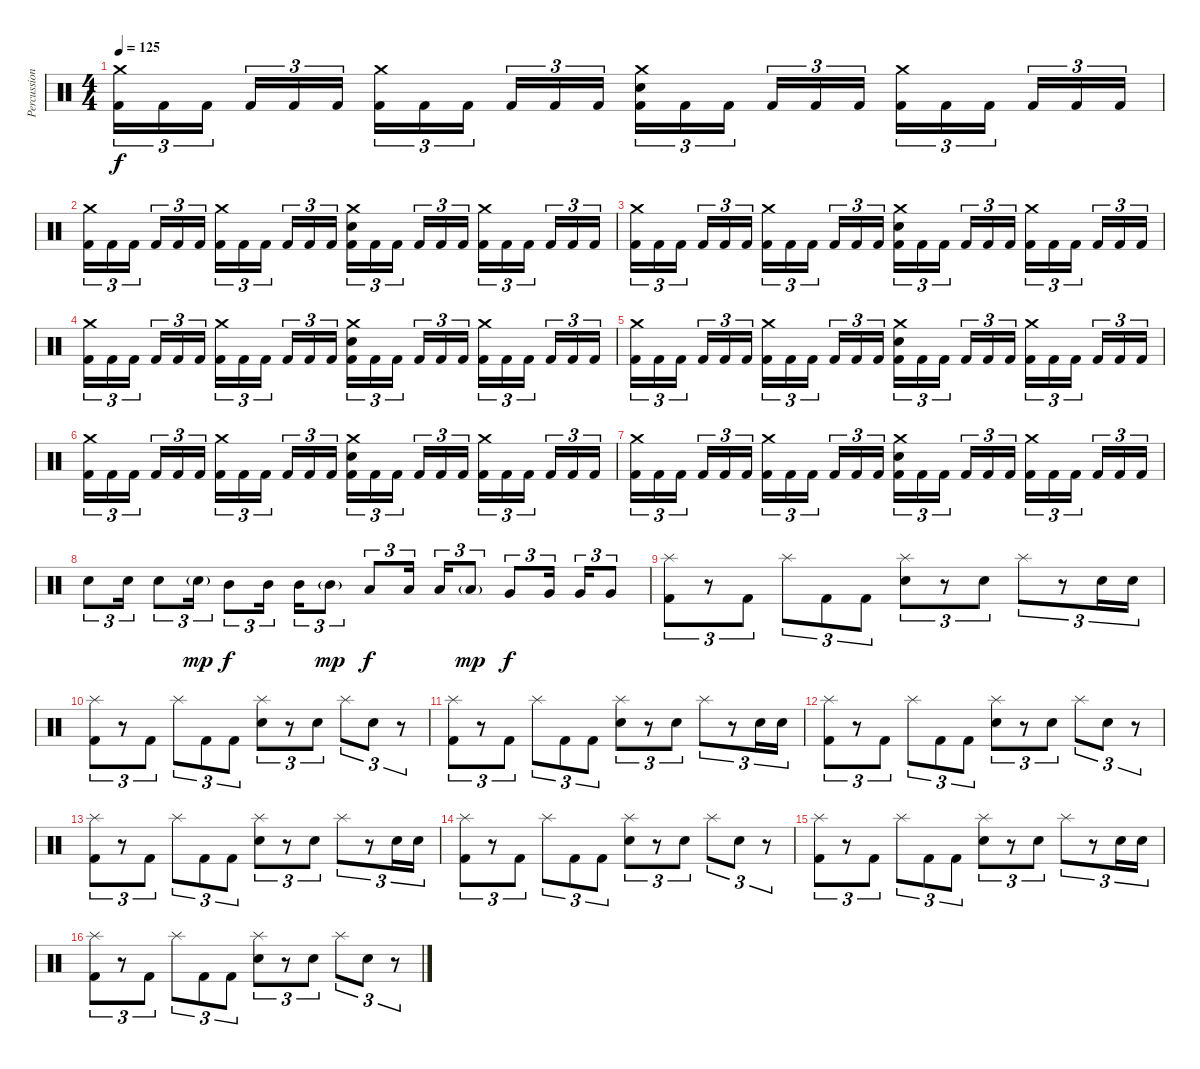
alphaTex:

\track ("Percussion" "Percussion") {instrument percussion}
\staff {score}
\articulation defaults
\ts (4 4)
\tempo 125
\clef neutral
\ks c
("Crash medium (hit)" "Kick (hit) 2").16{tu (3 2) dy f} "Kick (hit) 2".16{tu (3 2)} "Kick (hit) 2".16{tu (3 2)} "Kick (hit) 2".16{tu (3 2)} "Kick (hit) 2".16{tu (3 2)} "Kick (hit) 2".16{tu (3 2)} ("Crash medium (hit)" "Kick (hit) 2").16{tu (3 2)} "Kick (hit) 2".16{tu (3 2)} "Kick (hit) 2".16{tu (3 2)} "Kick (hit) 2".16{tu (3 2)} "Kick (hit) 2".16{tu (3 2)} "Kick (hit) 2".16{tu (3 2)} ("Crash medium (hit)" "Electric Snare (hit)" "Kick (hit) 2").16{tu (3 2)} "Kick (hit) 2".16{tu (3 2)} "Kick (hit) 2".16{tu (3 2)} "Kick (hit) 2".16{tu (3 2)} "Kick (hit) 2".16{tu (3 2)} "Kick (hit) 2".16{tu (3 2)} ("Crash medium (hit)" "Kick (hit) 2").16{tu (3 2)} "Kick (hit) 2".16{tu (3 2)} "Kick (hit) 2".16{tu (3 2)} "Kick (hit) 2".16{tu (3 2)} "Kick (hit) 2".16{tu (3 2)} "Kick (hit) 2".16{tu (3 2)} |
("Crash medium (hit)" "Kick (hit) 2").16{tu (3 2)} "Kick (hit) 2".16{tu (3 2)} "Kick (hit) 2".16{tu (3 2)} "Kick (hit) 2".16{tu (3 2)} "Kick (hit) 2".16{tu (3 2)} "Kick (hit) 2".16{tu (3 2)} ("Crash medium (hit)" "Kick (hit) 2").16{tu (3 2)} "Kick (hit) 2".16{tu (3 2)} "Kick (hit) 2".16{tu (3 2)} "Kick (hit) 2".16{tu (3 2)} "Kick (hit) 2".16{tu (3 2)} "Kick (hit) 2".16{tu (3 2)} ("Crash medium (hit)" "Electric Snare (hit)" "Kick (hit) 2").16{tu (3 2)} "Kick (hit) 2".16{tu (3 2)} "Kick (hit) 2".16{tu (3 2)} "Kick (hit) 2".16{tu (3 2)} "Kick (hit) 2".16{tu (3 2)} "Kick (hit) 2".16{tu (3 2)} ("Crash medium (hit)" "Kick (hit) 2").16{tu (3 2)} "Kick (hit) 2".16{tu (3 2)} "Kick (hit) 2".16{tu (3 2)} "Kick (hit) 2".16{tu (3 2)} "Kick (hit) 2".16{tu (3 2)} "Kick (hit) 2".16{tu (3 2)} |
("Crash medium (hit)" "Kick (hit) 2").16{tu (3 2)} "Kick (hit) 2".16{tu (3 2)} "Kick (hit) 2".16{tu (3 2)} "Kick (hit) 2".16{tu (3 2)} "Kick (hit) 2".16{tu (3 2)} "Kick (hit) 2".16{tu (3 2)} ("Crash medium (hit)" "Kick (hit) 2").16{tu (3 2)} "Kick (hit) 2".16{tu (3 2)} "Kick (hit) 2".16{tu (3 2)} "Kick (hit) 2".16{tu (3 2)} "Kick (hit) 2".16{tu (3 2)} "Kick (hit) 2".16{tu (3 2)} ("Crash medium (hit)" "Electric Snare (hit)" "Kick (hit) 2").16{tu (3 2)} "Kick (hit) 2".16{tu (3 2)} "Kick (hit) 2".16{tu (3 2)} "Kick (hit) 2".16{tu (3 2)} "Kick (hit) 2".16{tu (3 2)} "Kick (hit) 2".16{tu (3 2)} ("Crash medium (hit)" "Kick (hit) 2").16{tu (3 2)} "Kick (hit) 2".16{tu (3 2)} "Kick (hit) 2".16{tu (3 2)} "Kick (hit) 2".16{tu (3 2)} "Kick (hit) 2".16{tu (3 2)} "Kick (hit) 2".16{tu (3 2)} |
("Crash medium (hit)" "Kick (hit) 2").16{tu (3 2)} "Kick (hit) 2".16{tu (3 2)} "Kick (hit) 2".16{tu (3 2)} "Kick (hit) 2".16{tu (3 2)} "Kick (hit) 2".16{tu (3 2)} "Kick (hit) 2".16{tu (3 2)} ("Crash medium (hit)" "Kick (hit) 2").16{tu (3 2)} "Kick (hit) 2".16{tu (3 2)} "Kick (hit) 2".16{tu (3 2)} "Kick (hit) 2".16{tu (3 2)} "Kick (hit) 2".16{tu (3 2)} "Kick (hit) 2".16{tu (3 2)} ("Crash medium (hit)" "Electric Snare (hit)" "Kick (hit) 2").16{tu (3 2)} "Kick (hit) 2".16{tu (3 2)} "Kick (hit) 2".16{tu (3 2)} "Kick (hit) 2".16{tu (3 2)} "Kick (hit) 2".16{tu (3 2)} "Kick (hit) 2".16{tu (3 2)} ("Crash medium (hit)" "Kick (hit) 2").16{tu (3 2)} "Kick (hit) 2".16{tu (3 2)} "Kick (hit) 2".16{tu (3 2)} "Kick (hit) 2".16{tu (3 2)} "Kick (hit) 2".16{tu (3 2)} "Kick (hit) 2".16{tu (3 2)} |
("Crash medium (hit)" "Kick (hit) 2").16{tu (3 2)} "Kick (hit) 2".16{tu (3 2)} "Kick (hit) 2".16{tu (3 2)} "Kick (hit) 2".16{tu (3 2)} "Kick (hit) 2".16{tu (3 2)} "Kick (hit) 2".16{tu (3 2)} ("Crash medium (hit)" "Kick (hit) 2").16{tu (3 2)} "Kick (hit) 2".16{tu (3 2)} "Kick (hit) 2".16{tu (3 2)} "Kick (hit) 2".16{tu (3 2)} "Kick (hit) 2".16{tu (3 2)} "Kick (hit) 2".16{tu (3 2)} ("Crash medium (hit)" "Electric Snare (hit)" "Kick (hit) 2").16{tu (3 2)} "Kick (hit) 2".16{tu (3 2)} "Kick (hit) 2".16{tu (3 2)} "Kick (hit) 2".16{tu (3 2)} "Kick (hit) 2".16{tu (3 2)} "Kick (hit) 2".16{tu (3 2)} ("Crash medium (hit)" "Kick (hit) 2").16{tu (3 2)} "Kick (hit) 2".16{tu (3 2)} "Kick (hit) 2".16{tu (3 2)} "Kick (hit) 2".16{tu (3 2)} "Kick (hit) 2".16{tu (3 2)} "Kick (hit) 2".16{tu (3 2)} |
("Crash medium (hit)" "Kick (hit) 2").16{tu (3 2)} "Kick (hit) 2".16{tu (3 2)} "Kick (hit) 2".16{tu (3 2)} "Kick (hit) 2".16{tu (3 2)} "Kick (hit) 2".16{tu (3 2)} "Kick (hit) 2".16{tu (3 2)} ("Crash medium (hit)" "Kick (hit) 2").16{tu (3 2)} "Kick (hit) 2".16{tu (3 2)} "Kick (hit) 2".16{tu (3 2)} "Kick (hit) 2".16{tu (3 2)} "Kick (hit) 2".16{tu (3 2)} "Kick (hit) 2".16{tu (3 2)} ("Crash medium (hit)" "Electric Snare (hit)" "Kick (hit) 2").16{tu (3 2)} "Kick (hit) 2".16{tu (3 2)} "Kick (hit) 2".16{tu (3 2)} "Kick (hit) 2".16{tu (3 2)} "Kick (hit) 2".16{tu (3 2)} "Kick (hit) 2".16{tu (3 2)} ("Crash medium (hit)" "Kick (hit) 2").16{tu (3 2)} "Kick (hit) 2".16{tu (3 2)} "Kick (hit) 2".16{tu (3 2)} "Kick (hit) 2".16{tu (3 2)} "Kick (hit) 2".16{tu (3 2)} "Kick (hit) 2".16{tu (3 2)} |
("Crash medium (hit)" "Kick (hit) 2").16{tu (3 2)} "Kick (hit) 2".16{tu (3 2)} "Kick (hit) 2".16{tu (3 2)} "Kick (hit) 2".16{tu (3 2)} "Kick (hit) 2".16{tu (3 2)} "Kick (hit) 2".16{tu (3 2)} ("Crash medium (hit)" "Kick (hit) 2").16{tu (3 2)} "Kick (hit) 2".16{tu (3 2)} "Kick (hit) 2".16{tu (3 2)} "Kick (hit) 2".16{tu (3 2)} "Kick (hit) 2".16{tu (3 2)} "Kick (hit) 2".16{tu (3 2)} ("Crash medium (hit)" "Electric Snare (hit)" "Kick (hit) 2").16{tu (3 2)} "Kick (hit) 2".16{tu (3 2)} "Kick (hit) 2".16{tu (3 2)} "Kick (hit) 2".16{tu (3 2)} "Kick (hit) 2".16{tu (3 2)} "Kick (hit) 2".16{tu (3 2)} ("Crash medium (hit)" "Kick (hit) 2").16{tu (3 2)} "Kick (hit) 2".16{tu (3 2)} "Kick (hit) 2".16{tu (3 2)} "Kick (hit) 2".16{tu (3 2)} "Kick (hit) 2".16{tu (3 2)} "Kick (hit) 2".16{tu (3 2)} |
"Electric Snare (hit)".8{tu (3 2)} "Electric Snare (hit)".16{tu (3 2)} "Electric Snare (hit)".8{tu (3 2)} "Electric Snare (hit)"{g}.16{tu (3 2) dy mp} "Mid Tom (hit)".8{tu (3 2) dy f} "Mid Tom (hit)".16{tu (3 2)} "Mid Tom (hit)".16{tu (3 2)} "Mid Tom (hit)"{g}.8{tu (3 2) dy mp} "Low Tom (hit)".8{tu (3 2) dy f} "Low Tom (hit)".16{tu (3 2)} "Low Tom (hit)".16{tu (3 2)} "Low Tom (hit)"{g}.8{tu (3 2) dy mp} "Very Low Tom (hit)".8{tu (3 2) dy f} "Very Low Tom (hit)".16{tu (3 2)} "Very Low Tom (hit)".16{tu (3 2)} "Very Low Tom (hit)".8{tu (3 2)} |
("Splash (hit)" "Kick (hit) 2").8{tu (3 2)} r.8{tu (3 2)} "Kick (hit) 2".8{tu (3 2)} "Splash (hit)".8{tu (3 2)} "Kick (hit) 2".8{tu (3 2)} "Kick (hit) 2".8{tu (3 2)} ("Splash (hit)" "Electric Snare (hit)").8{tu (3 2)} r.8{tu (3 2)} "Electric Snare (hit)".8{tu (3 2)} "Splash (hit)".8{tu (3 2)} r.8{tu (3 2)} "Electric Snare (hit)".16{tu (3 2)} "Electric Snare (hit)".16{tu (3 2)} |
("Splash (hit)" "Kick (hit) 2").8{tu (3 2)} r.8{tu (3 2)} "Kick (hit) 2".8{tu (3 2)} "Splash (hit)".8{tu (3 2)} "Kick (hit) 2".8{tu (3 2)} "Kick (hit) 2".8{tu (3 2)} ("Splash (hit)" "Electric Snare (hit)").8{tu (3 2)} r.8{tu (3 2)} "Electric Snare (hit)".8{tu (3 2)} "Splash (hit)".8{tu (3 2)} "Electric Snare (hit)".8{tu (3 2)} r.8{tu (3 2)} |
("Splash (hit)" "Kick (hit) 2").8{tu (3 2)} r.8{tu (3 2)} "Kick (hit) 2".8{tu (3 2)} "Splash (hit)".8{tu (3 2)} "Kick (hit) 2".8{tu (3 2)} "Kick (hit) 2".8{tu (3 2)} ("Splash (hit)" "Electric Snare (hit)").8{tu (3 2)} r.8{tu (3 2)} "Electric Snare (hit)".8{tu (3 2)} "Splash (hit)".8{tu (3 2)} r.8{tu (3 2)} "Electric Snare (hit)".16{tu (3 2)} "Electric Snare (hit)".16{tu (3 2)} |
("Splash (hit)" "Kick (hit) 2").8{tu (3 2)} r.8{tu (3 2)} "Kick (hit) 2".8{tu (3 2)} "Splash (hit)".8{tu (3 2)} "Kick (hit) 2".8{tu (3 2)} "Kick (hit) 2".8{tu (3 2)} ("Splash (hit)" "Electric Snare (hit)").8{tu (3 2)} r.8{tu (3 2)} "Electric Snare (hit)".8{tu (3 2)} "Splash (hit)".8{tu (3 2)} "Electric Snare (hit)".8{tu (3 2)} r.8{tu (3 2)} |
("Splash (hit)" "Kick (hit) 2").8{tu (3 2)} r.8{tu (3 2)} "Kick (hit) 2".8{tu (3 2)} "Splash (hit)".8{tu (3 2)} "Kick (hit) 2".8{tu (3 2)} "Kick (hit) 2".8{tu (3 2)} ("Splash (hit)" "Electric Snare (hit)").8{tu (3 2)} r.8{tu (3 2)} "Electric Snare (hit)".8{tu (3 2)} "Splash (hit)".8{tu (3 2)} r.8{tu (3 2)} "Electric Snare (hit)".16{tu (3 2)} "Electric Snare (hit)".16{tu (3 2)} |
("Splash (hit)" "Kick (hit) 2").8{tu (3 2)} r.8{tu (3 2)} "Kick (hit) 2".8{tu (3 2)} "Splash (hit)".8{tu (3 2)} "Kick (hit) 2".8{tu (3 2)} "Kick (hit) 2".8{tu (3 2)} ("Splash (hit)" "Electric Snare (hit)").8{tu (3 2)} r.8{tu (3 2)} "Electric Snare (hit)".8{tu (3 2)} "Splash (hit)".8{tu (3 2)} "Electric Snare (hit)".8{tu (3 2)} r.8{tu (3 2)} |
("Splash (hit)" "Kick (hit) 2").8{tu (3 2)} r.8{tu (3 2)} "Kick (hit) 2".8{tu (3 2)} "Splash (hit)".8{tu (3 2)} "Kick (hit) 2".8{tu (3 2)} "Kick (hit) 2".8{tu (3 2)} ("Splash (hit)" "Electric Snare (hit)").8{tu (3 2)} r.8{tu (3 2)} "Electric Snare (hit)".8{tu (3 2)} "Splash (hit)".8{tu (3 2)} r.8{tu (3 2)} "Electric Snare (hit)".16{tu (3 2)} "Electric Snare (hit)".16{tu (3 2)} |
("Splash (hit)" "Kick (hit) 2").8{tu (3 2)} r.8{tu (3 2)} "Kick (hit) 2".8{tu (3 2)} "Splash (hit)".8{tu (3 2)} "Kick (hit) 2".8{tu (3 2)} "Kick (hit) 2".8{tu (3 2)} ("Splash (hit)" "Electric Snare (hit)").8{tu (3 2)} r.8{tu (3 2)} "Electric Snare (hit)".8{tu (3 2)} "Splash (hit)".8{tu (3 2)} "Electric Snare (hit)".8{tu (3 2)} r.8{tu (3 2)}
